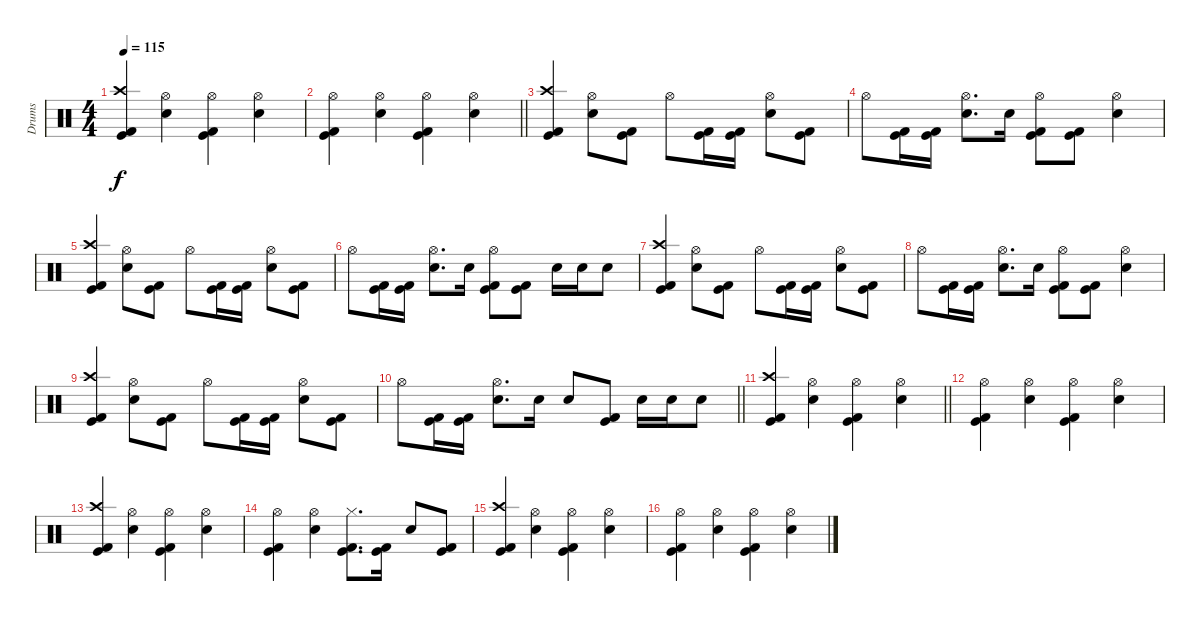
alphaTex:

\track ("Drums" "Drums") {instrument percussion}
\staff {score}
\articulation defaults
\ts (4 4)
\tempo 115
\clef neutral
\ks c
("Kick (hit) 2" "Crash high (hit)" "Kick (hit)").4{dy f} ("Electric Snare (hit)" "Hi-Hat (open)").4 ("Kick (hit) 2" "Hi-Hat (open)" "Kick (hit)").4 ("Electric Snare (hit)" "Hi-Hat (open)").4 |
\barLineRight lightlight
("Kick (hit) 2" "Hi-Hat (open)" "Kick (hit)").4 ("Electric Snare (hit)" "Hi-Hat (open)").4 ("Kick (hit) 2" "Hi-Hat (open)" "Kick (hit)").4 ("Electric Snare (hit)" "Hi-Hat (open)").4 |
\section ("" "")
("Kick (hit) 2" "Crash high (hit)" "Kick (hit)").4 ("Electric Snare (hit)" "Hi-Hat (open)").8 ("Kick (hit) 2" "Kick (hit)").8 "Hi-Hat (open)".8 ("Kick (hit) 2" "Kick (hit)").16 ("Kick (hit) 2" "Kick (hit)").16 ("Electric Snare (hit)" "Hi-Hat (open)").8 ("Kick (hit) 2" "Kick (hit)").8 |
"Hi-Hat (open)".8 ("Kick (hit) 2" "Kick (hit)").16 ("Kick (hit) 2" "Kick (hit)").16 ("Electric Snare (hit)" "Hi-Hat (open)").8{d} "Electric Snare (hit)".16 ("Kick (hit) 2" "Hi-Hat (open)" "Kick (hit)").8 ("Kick (hit) 2" "Kick (hit)").8 ("Electric Snare (hit)" "Hi-Hat (open)").4 |
("Kick (hit) 2" "Crash high (hit)" "Kick (hit)").4 ("Electric Snare (hit)" "Hi-Hat (open)").8 ("Kick (hit) 2" "Kick (hit)").8 "Hi-Hat (open)".8 ("Kick (hit) 2" "Kick (hit)").16 ("Kick (hit) 2" "Kick (hit)").16 ("Electric Snare (hit)" "Hi-Hat (open)").8 ("Kick (hit) 2" "Kick (hit)").8 |
"Hi-Hat (open)".8 ("Kick (hit) 2" "Kick (hit)").16 ("Kick (hit) 2" "Kick (hit)").16 ("Electric Snare (hit)" "Hi-Hat (open)").8{d} "Electric Snare (hit)".16 ("Kick (hit) 2" "Hi-Hat (open)" "Kick (hit)").8 ("Kick (hit) 2" "Kick (hit)").8 "Electric Snare (hit)".16 "Electric Snare (hit)".16 "Electric Snare (hit)".8 |
("Kick (hit) 2" "Crash high (hit)" "Kick (hit)").4 ("Electric Snare (hit)" "Hi-Hat (open)").8 ("Kick (hit) 2" "Kick (hit)").8 "Hi-Hat (open)".8 ("Kick (hit) 2" "Kick (hit)").16 ("Kick (hit) 2" "Kick (hit)").16 ("Electric Snare (hit)" "Hi-Hat (open)").8 ("Kick (hit) 2" "Kick (hit)").8 |
"Hi-Hat (open)".8 ("Kick (hit) 2" "Kick (hit)").16 ("Kick (hit) 2" "Kick (hit)").16 ("Electric Snare (hit)" "Hi-Hat (open)").8{d} "Electric Snare (hit)".16 ("Kick (hit) 2" "Hi-Hat (open)" "Kick (hit)").8 ("Kick (hit) 2" "Kick (hit)").8 ("Electric Snare (hit)" "Hi-Hat (open)").4 |
("Kick (hit) 2" "Crash high (hit)" "Kick (hit)").4 ("Electric Snare (hit)" "Hi-Hat (open)").8 ("Kick (hit) 2" "Kick (hit)").8 "Hi-Hat (open)".8 ("Kick (hit) 2" "Kick (hit)").16 ("Kick (hit) 2" "Kick (hit)").16 ("Electric Snare (hit)" "Hi-Hat (open)").8 ("Kick (hit) 2" "Kick (hit)").8 |
\barLineRight lightlight "Hi-Hat (open)".8
("Kick (hit) 2" "Kick (hit)").16 ("Kick (hit) 2" "Kick (hit)").16 ("Electric Snare (hit)" "Hi-Hat (open)").8{d} "Electric Snare (hit)".16 "Electric Snare (hit)".8 ("Kick (hit) 2" "Kick (hit)").8 "Electric Snare (hit)".16 "Electric Snare (hit)".16 "Electric Snare (hit)".8 |
\section ("" "")
\barLineRight lightlight
("Kick (hit) 2" "Crash high (hit)" "Kick (hit)").4 ("Electric Snare (hit)" "Hi-Hat (open)").4 ("Kick (hit) 2" "Hi-Hat (open)" "Kick (hit)").4 ("Electric Snare (hit)" "Hi-Hat (open)").4 |
("Kick (hit) 2" "Hi-Hat (open)" "Kick (hit)").4 ("Electric Snare (hit)" "Hi-Hat (open)").4 ("Kick (hit) 2" "Hi-Hat (open)" "Kick (hit)").4 ("Electric Snare (hit)" "Hi-Hat (open)").4 |
("Kick (hit) 2" "Crash high (hit)" "Kick (hit)").4 ("Electric Snare (hit)" "Hi-Hat (open)").4 ("Kick (hit) 2" "Hi-Hat (open)" "Kick (hit)").4 ("Electric Snare (hit)" "Hi-Hat (open)").4 |
("Kick (hit) 2" "Hi-Hat (open)" "Kick (hit)").4 ("Electric Snare (hit)" "Hi-Hat (open)").4 ("Kick (hit) 2" "Hi-Hat (closed)" "Kick (hit)").8{d} ("Kick (hit) 2" "Kick (hit)").16 "Electric Snare (hit)".8 ("Kick (hit) 2" "Kick (hit)").8 |
("Kick (hit) 2" "Crash high (hit)" "Kick (hit)").4 ("Electric Snare (hit)" "Hi-Hat (open)").4 ("Kick (hit) 2" "Hi-Hat (open)" "Kick (hit)").4 ("Electric Snare (hit)" "Hi-Hat (open)").4 |
("Kick (hit) 2" "Hi-Hat (open)" "Kick (hit)").4 ("Electric Snare (hit)" "Hi-Hat (open)").4 ("Kick (hit) 2" "Hi-Hat (open)" "Kick (hit)").4 ("Electric Snare (hit)" "Hi-Hat (open)").4
